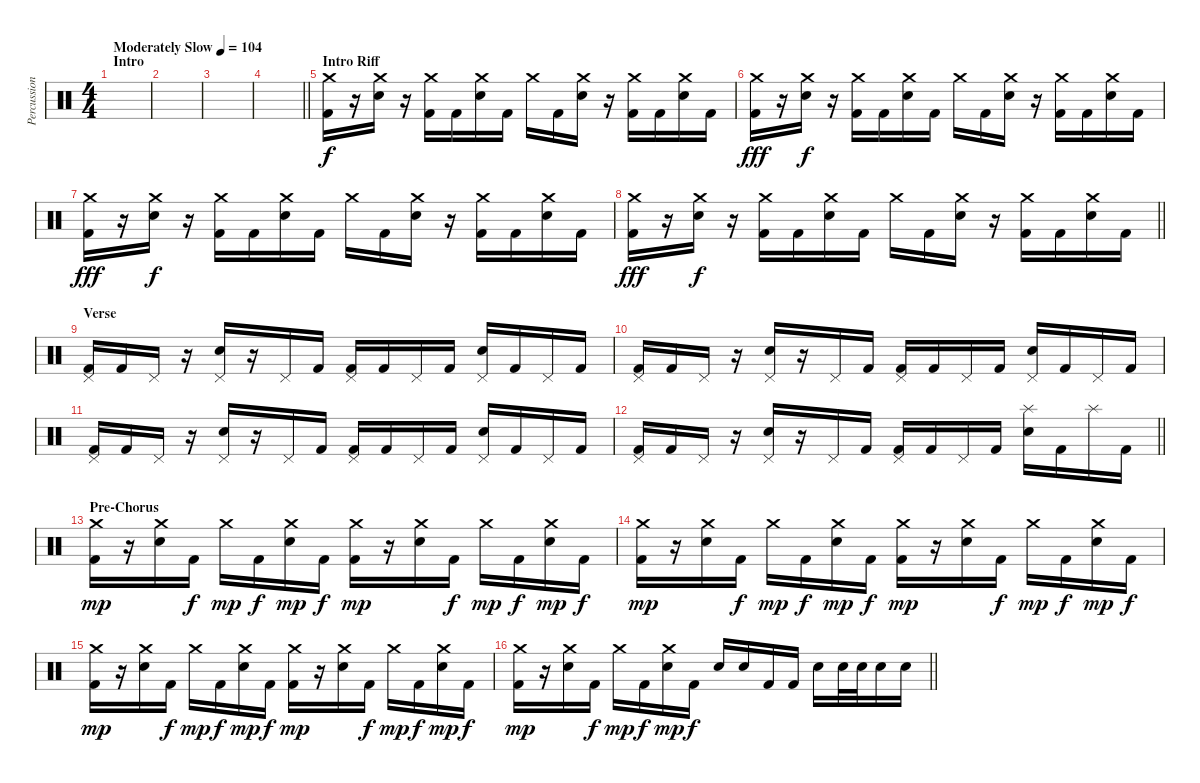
\track ("Percussion" "Percussion") {instrument percussion}
\staff {score}
\articulation defaults
\ts (4 4)
\section ("" "Intro")
\tempo (104 "Moderately Slow")
\clef neutral
\ks c
|
|
|
\barLineRight lightlight
|
\section ("" "Intro Riff")
("Crash medium (hit)" "Kick (hit) 2").16 r.16 ("Crash medium (hit)" "Electric Snare (hit)").16{dy f} r.16 ("Crash medium (hit)" "Kick (hit) 2").16 "Kick (hit) 2".16 ("Crash medium (hit)" "Electric Snare (hit)").16 "Kick (hit) 2".16 "Crash medium (hit)".16 "Kick (hit) 2".16 ("Crash medium (hit)" "Electric Snare (hit)").16 r.16 ("Crash medium (hit)" "Kick (hit) 2").16 "Kick (hit) 2".16 ("Crash medium (hit)" "Electric Snare (hit)").16 "Kick (hit) 2".16 |
("Crash medium (hit)" "Kick (hit) 2").16{dy fff} r.16 ("Crash medium (hit)" "Electric Snare (hit)").16{dy f} r.16 ("Crash medium (hit)" "Kick (hit) 2").16 "Kick (hit) 2".16 ("Crash medium (hit)" "Electric Snare (hit)").16 "Kick (hit) 2".16 "Crash medium (hit)".16 "Kick (hit) 2".16 ("Crash medium (hit)" "Electric Snare (hit)").16 r.16 ("Crash medium (hit)" "Kick (hit) 2").16 "Kick (hit) 2".16 ("Crash medium (hit)" "Electric Snare (hit)").16 "Kick (hit) 2".16 |
("Crash medium (hit)" "Kick (hit) 2").16{dy fff} r.16 ("Crash medium (hit)" "Electric Snare (hit)").16{dy f} r.16 ("Crash medium (hit)" "Kick (hit) 2").16 "Kick (hit) 2".16 ("Crash medium (hit)" "Electric Snare (hit)").16 "Kick (hit) 2".16 "Crash medium (hit)".16 "Kick (hit) 2".16 ("Crash medium (hit)" "Electric Snare (hit)").16 r.16 ("Crash medium (hit)" "Kick (hit) 2").16 "Kick (hit) 2".16 ("Crash medium (hit)" "Electric Snare (hit)").16 "Kick (hit) 2".16 |
\barLineRight lightlight
("Crash medium (hit)" "Kick (hit) 2").16{dy fff} r.16 ("Crash medium (hit)" "Electric Snare (hit)").16{dy f} r.16 ("Crash medium (hit)" "Kick (hit) 2").16 "Kick (hit) 2".16 ("Crash medium (hit)" "Electric Snare (hit)").16 "Kick (hit) 2".16 "Crash medium (hit)".16 "Kick (hit) 2".16 ("Crash medium (hit)" "Electric Snare (hit)").16 r.16 ("Crash medium (hit)" "Kick (hit) 2").16 "Kick (hit) 2".16 ("Crash medium (hit)" "Electric Snare (hit)").16 "Kick (hit) 2".16 |
\section ("" "Verse")
("Pedal Hi-Hat (hit)" "Kick (hit) 2").16 "Kick (hit) 2".16 "Pedal Hi-Hat (hit)".16 r.16 ("Pedal Hi-Hat (hit)" "Electric Snare (hit)").16 r.16 "Pedal Hi-Hat (hit)".16 "Kick (hit) 2".16 ("Pedal Hi-Hat (hit)" "Kick (hit) 2").16 "Kick (hit) 2".16 "Pedal Hi-Hat (hit)".16 "Kick (hit) 2".16 ("Pedal Hi-Hat (hit)" "Electric Snare (hit)").16 "Kick (hit) 2".16 "Pedal Hi-Hat (hit)".16 "Kick (hit) 2".16 |
("Pedal Hi-Hat (hit)" "Kick (hit) 2").16 "Kick (hit) 2".16 "Pedal Hi-Hat (hit)".16 r.16 ("Pedal Hi-Hat (hit)" "Electric Snare (hit)").16 r.16 "Pedal Hi-Hat (hit)".16 "Kick (hit) 2".16 ("Pedal Hi-Hat (hit)" "Kick (hit) 2").16 "Kick (hit) 2".16 "Pedal Hi-Hat (hit)".16 "Kick (hit) 2".16 ("Pedal Hi-Hat (hit)" "Electric Snare (hit)").16 "Kick (hit) 2".16 "Pedal Hi-Hat (hit)".16 "Kick (hit) 2".16 |
("Pedal Hi-Hat (hit)" "Kick (hit) 2").16 "Kick (hit) 2".16 "Pedal Hi-Hat (hit)".16 r.16 ("Pedal Hi-Hat (hit)" "Electric Snare (hit)").16 r.16 "Pedal Hi-Hat (hit)".16 "Kick (hit) 2".16 ("Pedal Hi-Hat (hit)" "Kick (hit) 2").16 "Kick (hit) 2".16 "Pedal Hi-Hat (hit)".16 "Kick (hit) 2".16 ("Pedal Hi-Hat (hit)" "Electric Snare (hit)").16 "Kick (hit) 2".16 "Pedal Hi-Hat (hit)".16 "Kick (hit) 2".16 |
\barLineRight lightlight
("Pedal Hi-Hat (hit)" "Kick (hit) 2").16 "Kick (hit) 2".16 "Pedal Hi-Hat (hit)".16 r.16 ("Pedal Hi-Hat (hit)" "Electric Snare (hit)").16 r.16 "Pedal Hi-Hat (hit)".16 "Kick (hit) 2".16 ("Pedal Hi-Hat (hit)" "Kick (hit) 2").16 "Kick (hit) 2".16 "Pedal Hi-Hat (hit)".16 "Kick (hit) 2".16 ("Splash (hit)" "Electric Snare (hit)").16 "Kick (hit) 2".16 "Splash (hit)".16 "Kick (hit) 2".16 |
\section ("" "Pre-Chorus")
("Crash medium (hit)" "Kick (hit) 2").16{dy mp} r.16 ("Crash medium (hit)" "Electric Snare (hit)").16 "Kick (hit) 2".16{dy f} "Crash medium (hit)".16{dy mp} "Kick (hit) 2".16{dy f} ("Crash medium (hit)" "Electric Snare (hit)").16{dy mp} "Kick (hit) 2".16{dy f} ("Crash medium (hit)" "Kick (hit) 2").16{dy mp} r.16 ("Crash medium (hit)" "Electric Snare (hit)").16 "Kick (hit) 2".16{dy f} "Crash medium (hit)".16{dy mp} "Kick (hit) 2".16{dy f} ("Crash medium (hit)" "Electric Snare (hit)").16{dy mp} "Kick (hit) 2".16{dy f} |
("Crash medium (hit)" "Kick (hit) 2").16{dy mp} r.16 ("Crash medium (hit)" "Electric Snare (hit)").16 "Kick (hit) 2".16{dy f} "Crash medium (hit)".16{dy mp} "Kick (hit) 2".16{dy f} ("Crash medium (hit)" "Electric Snare (hit)").16{dy mp} "Kick (hit) 2".16{dy f} ("Crash medium (hit)" "Kick (hit) 2").16{dy mp} r.16 ("Crash medium (hit)" "Electric Snare (hit)").16 "Kick (hit) 2".16{dy f} "Crash medium (hit)".16{dy mp} "Kick (hit) 2".16{dy f} ("Crash medium (hit)" "Electric Snare (hit)").16{dy mp} "Kick (hit) 2".16{dy f} |
("Crash medium (hit)" "Kick (hit) 2").16{dy mp} r.16 ("Crash medium (hit)" "Electric Snare (hit)").16 "Kick (hit) 2".16{dy f} "Crash medium (hit)".16{dy mp} "Kick (hit) 2".16{dy f} ("Crash medium (hit)" "Electric Snare (hit)").16{dy mp} "Kick (hit) 2".16{dy f} ("Crash medium (hit)" "Kick (hit) 2").16{dy mp} r.16 ("Crash medium (hit)" "Electric Snare (hit)").16 "Kick (hit) 2".16{dy f} "Crash medium (hit)".16{dy mp} "Kick (hit) 2".16{dy f} ("Crash medium (hit)" "Electric Snare (hit)").16{dy mp} "Kick (hit) 2".16{dy f} |
\barLineRight lightlight
("Crash medium (hit)" "Kick (hit) 2").16{dy mp} r.16 ("Crash medium (hit)" "Electric Snare (hit)").16 "Kick (hit) 2".16{dy f} "Crash medium (hit)".16{dy mp} "Kick (hit) 2".16{dy f} ("Crash medium (hit)" "Electric Snare (hit)").16{dy mp} "Kick (hit) 2".16{dy f} "Electric Snare (hit)".16 "Electric Snare (hit)".16 "Kick (hit) 2".16 "Kick (hit) 2".16 "Electric Snare (hit)".16 "Electric Snare (hit)".32 "Electric Snare (hit)".32 "Electric Snare (hit)".16 "Electric Snare (hit)".16
